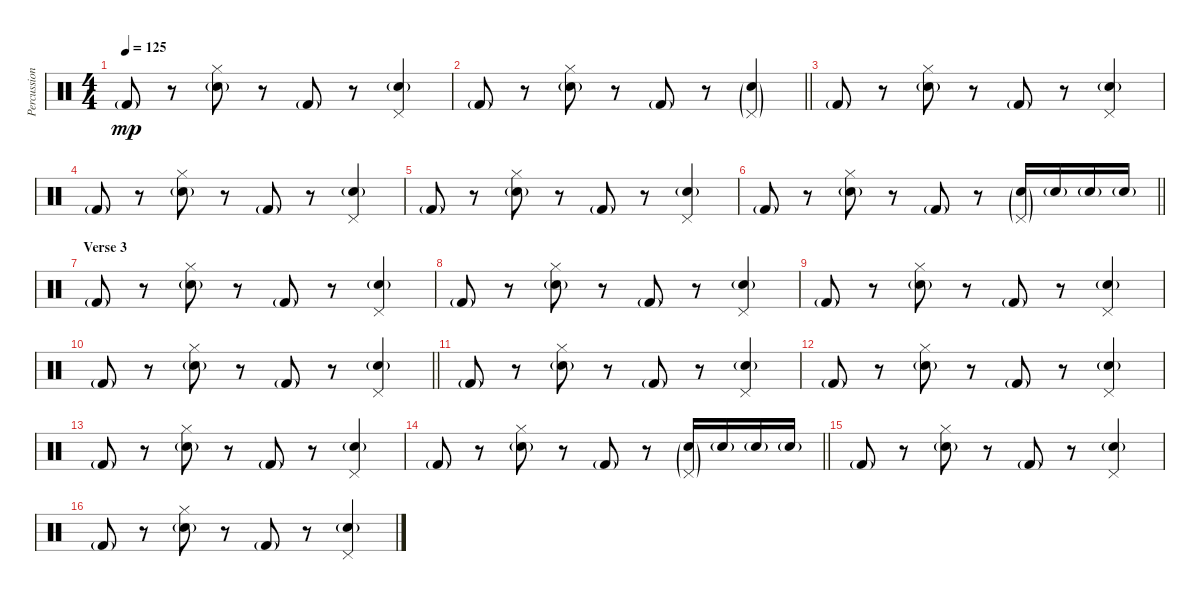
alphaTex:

\track ("Percussion" "Percussion") {instrument percussion}
\staff {score}
\articulation defaults
\ts (4 4)
\tempo 125
\clef neutral
\ks c "Kick (hit) 2"{g}.8{dy mp}
r.8 ("Electric Snare (hit)"{g} "Hi-Hat (closed)").8 r.8 "Kick (hit) 2"{g}.8 r.8 ("Electric Snare (hit)"{g} "Pedal Hi-Hat (hit)").4 |
\barLineRight lightlight "Kick (hit) 2"{g}.8
r.8 ("Electric Snare (hit)"{g} "Hi-Hat (closed)").8 r.8 "Kick (hit) 2"{g}.8 r.8 ("Electric Snare (hit)"{g} "Pedal Hi-Hat (hit)"{g}).4 |
"Kick (hit) 2"{g}.8 r.8 ("Electric Snare (hit)"{g} "Hi-Hat (closed)").8 r.8 "Kick (hit) 2"{g}.8 r.8 ("Electric Snare (hit)"{g} "Pedal Hi-Hat (hit)").4 |
"Kick (hit) 2"{g}.8 r.8 ("Electric Snare (hit)"{g} "Hi-Hat (closed)").8 r.8 "Kick (hit) 2"{g}.8 r.8 ("Electric Snare (hit)"{g} "Pedal Hi-Hat (hit)").4 |
"Kick (hit) 2"{g}.8 r.8 ("Electric Snare (hit)"{g} "Hi-Hat (closed)").8 r.8 "Kick (hit) 2"{g}.8 r.8 ("Electric Snare (hit)"{g} "Pedal Hi-Hat (hit)").4 |
\barLineRight lightlight "Kick (hit) 2"{g}.8
r.8 ("Electric Snare (hit)"{g} "Hi-Hat (closed)").8 r.8 "Kick (hit) 2"{g}.8 r.8 ("Electric Snare (hit)"{g} "Pedal Hi-Hat (hit)"{g}).16 "Electric Snare (hit)"{g}.16 "Electric Snare (hit)"{g}.16 "Electric Snare (hit)"{g}.16 |
\section ("" "Verse 3")
"Kick (hit) 2"{g}.8 r.8 ("Electric Snare (hit)"{g} "Hi-Hat (closed)").8 r.8 "Kick (hit) 2"{g}.8 r.8 ("Electric Snare (hit)"{g} "Pedal Hi-Hat (hit)").4 |
"Kick (hit) 2"{g}.8 r.8 ("Electric Snare (hit)"{g} "Hi-Hat (closed)").8 r.8 "Kick (hit) 2"{g}.8 r.8 ("Electric Snare (hit)"{g} "Pedal Hi-Hat (hit)").4 |
"Kick (hit) 2"{g}.8 r.8 ("Electric Snare (hit)"{g} "Hi-Hat (closed)").8 r.8 "Kick (hit) 2"{g}.8 r.8 ("Electric Snare (hit)"{g} "Pedal Hi-Hat (hit)").4 |
\barLineRight lightlight "Kick (hit) 2"{g}.8
r.8 ("Electric Snare (hit)"{g} "Hi-Hat (closed)").8 r.8 "Kick (hit) 2"{g}.8 r.8 ("Electric Snare (hit)"{g} "Pedal Hi-Hat (hit)").4 |
"Kick (hit) 2"{g}.8 r.8 ("Electric Snare (hit)"{g} "Hi-Hat (closed)").8 r.8 "Kick (hit) 2"{g}.8 r.8 ("Electric Snare (hit)"{g} "Pedal Hi-Hat (hit)").4 |
"Kick (hit) 2"{g}.8 r.8 ("Electric Snare (hit)"{g} "Hi-Hat (closed)").8 r.8 "Kick (hit) 2"{g}.8 r.8 ("Electric Snare (hit)"{g} "Pedal Hi-Hat (hit)").4 |
"Kick (hit) 2"{g}.8 r.8 ("Electric Snare (hit)"{g} "Hi-Hat (closed)").8 r.8 "Kick (hit) 2"{g}.8 r.8 ("Electric Snare (hit)"{g} "Pedal Hi-Hat (hit)").4 |
\barLineRight lightlight "Kick (hit) 2"{g}.8
r.8 ("Electric Snare (hit)"{g} "Hi-Hat (closed)").8 r.8 "Kick (hit) 2"{g}.8 r.8 ("Electric Snare (hit)"{g} "Pedal Hi-Hat (hit)"{g}).16 "Electric Snare (hit)"{g}.16 "Electric Snare (hit)"{g}.16 "Electric Snare (hit)"{g}.16 |
"Kick (hit) 2"{g}.8 r.8 ("Electric Snare (hit)"{g} "Hi-Hat (closed)").8 r.8 "Kick (hit) 2"{g}.8 r.8 ("Electric Snare (hit)"{g} "Pedal Hi-Hat (hit)").4 |
"Kick (hit) 2"{g}.8 r.8 ("Electric Snare (hit)"{g} "Hi-Hat (closed)").8 r.8 "Kick (hit) 2"{g}.8 r.8 ("Electric Snare (hit)"{g} "Pedal Hi-Hat (hit)").4
